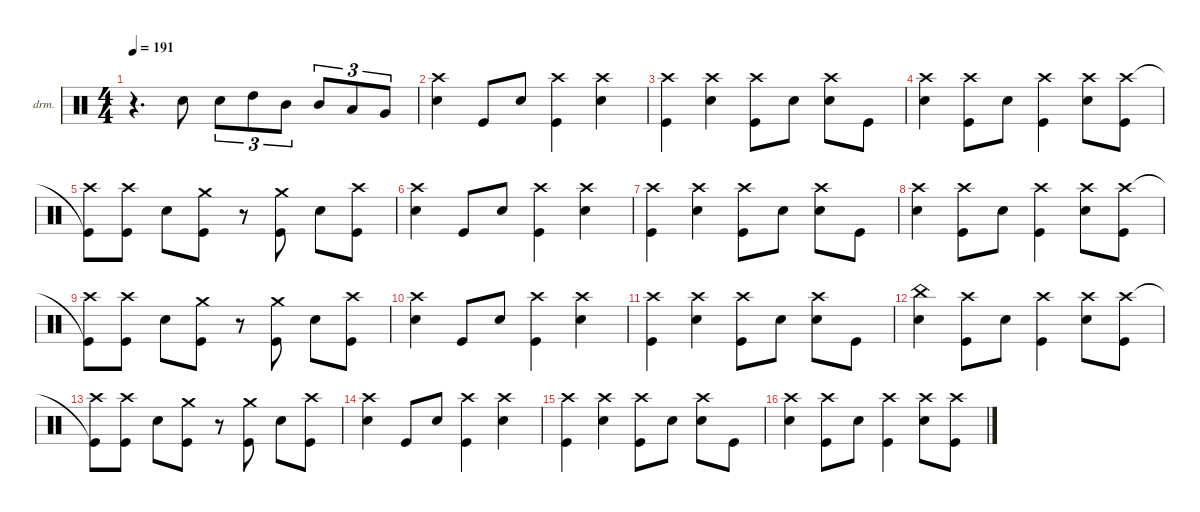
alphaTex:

\defaultSystemsLayout 4
\hideDynamics
\bracketExtendMode nobrackets
\firstSystemTrackNameOrientation horizontal
\otherSystemsTrackNameOrientation horizontal
\track ("Drumkit" "drm.") {instrument percussion}
\staff {score}
\articulation defaults
\ts (4 4)
\tempo 191
\clef neutral
\ks c
r.4{d dy f beam Down} "Snare (hit) 2".8{dy mp beam Down} "Snare (hit) 2".8{tu (3 2) dy f beam Down} "High Tom (hit)".8{tu (3 2) beam Down} "Mid Tom (hit)".8{tu (3 2) beam Down} "Mid Tom (hit)".8{tu (3 2) beam Up} "Low Tom (hit)".8{tu (3 2) beam Up} "Very Low Tom (hit)".8{tu (3 2) beam Up} |
("Crash high (hit)" "Snare (hit) 2").4{dy mf beam Down} "Kick (hit)".8{dy f beam Up} "Snare (hit) 2".8{dy mf beam Up} ("Crash high (hit)" "Kick (hit)").4{dy mp beam Down} ("Crash high (hit)" "Snare (hit) 2").4{dy mf beam Down} |
("Crash high (hit)" "Kick (hit)").4{beam Down} ("Crash high (hit)" "Snare (hit) 2").4{beam Down} ("Crash high (hit)" "Kick (hit)").8{beam Down} "Snare (hit) 2".8{dy mp beam Down} ("Crash high (hit)" "Snare (hit) 2").8{dy mf beam Down} "Kick (hit)".8{dy f beam Down} |
("Crash high (hit)" "Snare (hit) 2").4{dy mf beam Down} ("Crash high (hit)" "Kick (hit)").8{beam Down} "Snare (hit) 2".8{dy f beam Down} ("Crash high (hit)" "Kick (hit)").4{dy mf beam Down} ("Crash high (hit)" "Snare (hit) 2").8{beam Down} ("Crash high (hit)" "Kick (hit)").8{beam Down} |
("Kick (hit)"{t} "Crash high (hit)").8{dy f beam Down} ("Crash high (hit)" "Kick (hit)").8{beam Down} "Snare (hit) 2".8{beam Down} ("Crash medium (hit)" "Kick (hit)").8{beam Down} r.8{beam Down} ("Crash medium (hit)" "Kick (hit)").8{beam Down} "Snare (hit) 2".8{beam Down} ("Crash high (hit)" "Kick (hit)").8{beam Down} |
("Crash high (hit)" "Snare (hit) 2").4{dy mf beam Down} "Kick (hit)".8{dy f beam Up} "Snare (hit) 2".8{dy mf beam Up} ("Crash high (hit)" "Kick (hit)").4{dy mp beam Down} ("Crash high (hit)" "Snare (hit) 2").4{dy mf beam Down} |
("Crash high (hit)" "Kick (hit)").4{beam Down} ("Crash high (hit)" "Snare (hit) 2").4{beam Down} ("Crash high (hit)" "Kick (hit)").8{beam Down} "Snare (hit) 2".8{dy mp beam Down} ("Crash high (hit)" "Snare (hit) 2").8{dy mf beam Down} "Kick (hit)".8{dy f beam Down} |
("Crash high (hit)" "Snare (hit) 2").4{dy mf beam Down} ("Crash high (hit)" "Kick (hit)").8{beam Down} "Snare (hit) 2".8{dy f beam Down} ("Crash high (hit)" "Kick (hit)").4{dy mf beam Down} ("Crash high (hit)" "Snare (hit) 2").8{beam Down} ("Crash high (hit)" "Kick (hit)").8{beam Down} |
("Kick (hit)"{t} "Crash high (hit)").8{dy f beam Down} ("Crash high (hit)" "Kick (hit)").8{beam Down} "Snare (hit) 2".8{beam Down} ("Crash medium (hit)" "Kick (hit)").8{beam Down} r.8{beam Down} ("Crash medium (hit)" "Kick (hit)").8{beam Down} "Snare (hit) 2".8{beam Down} ("Crash high (hit)" "Kick (hit)").8{beam Down} |
("Crash high (hit)" "Snare (hit) 2").4{dy mf beam Down} "Kick (hit)".8{dy f beam Up} "Snare (hit) 2".8{dy mf beam Up} ("Crash high (hit)" "Kick (hit)").4{dy mp beam Down} ("Crash high (hit)" "Snare (hit) 2").4{dy mf beam Down} |
("Crash high (hit)" "Kick (hit)").4{beam Down} ("Crash high (hit)" "Snare (hit) 2").4{beam Down} ("Crash high (hit)" "Kick (hit)").8{beam Down} "Snare (hit) 2".8{dy mp beam Down} ("Crash high (hit)" "Snare (hit) 2").8{dy mf beam Down} "Kick (hit)".8{dy f beam Down} |
("China (hit)" "Snare (hit) 2").4{dy mf beam Down} ("Crash high (hit)" "Kick (hit)").8{beam Down} "Snare (hit) 2".8{dy f beam Down} ("Crash high (hit)" "Kick (hit)").4{dy mf beam Down} ("Crash high (hit)" "Snare (hit) 2").8{beam Down} ("Crash high (hit)" "Kick (hit)").8{beam Down} |
("Kick (hit)"{t} "Crash high (hit)").8{dy f beam Down} ("Crash high (hit)" "Kick (hit)").8{beam Down} "Snare (hit) 2".8{beam Down} ("Crash medium (hit)" "Kick (hit)").8{beam Down} r.8{beam Down} ("Crash medium (hit)" "Kick (hit)").8{beam Down} "Snare (hit) 2".8{beam Down} ("Crash high (hit)" "Kick (hit)").8{beam Down} |
("Crash high (hit)" "Snare (hit) 2").4{dy mf beam Down} "Kick (hit)".8{dy f beam Up} "Snare (hit) 2".8{dy mf beam Up} ("Crash high (hit)" "Kick (hit)").4{dy mp beam Down} ("Crash high (hit)" "Snare (hit) 2").4{dy mf beam Down} |
("Crash high (hit)" "Kick (hit)").4{beam Down} ("Crash high (hit)" "Snare (hit) 2").4{beam Down} ("Crash high (hit)" "Kick (hit)").8{beam Down} "Snare (hit) 2".8{dy mp beam Down} ("Crash high (hit)" "Snare (hit) 2").8{dy mf beam Down} "Kick (hit)".8{dy f beam Down} |
("Crash high (hit)" "Snare (hit) 2").4{dy mf beam Down} ("Crash high (hit)" "Kick (hit)").8{beam Down} "Snare (hit) 2".8{dy f beam Down} ("Crash high (hit)" "Kick (hit)").4{dy mf beam Down} ("Crash high (hit)" "Snare (hit) 2").8{beam Down} ("Crash high (hit)" "Kick (hit)").8{beam Down}
